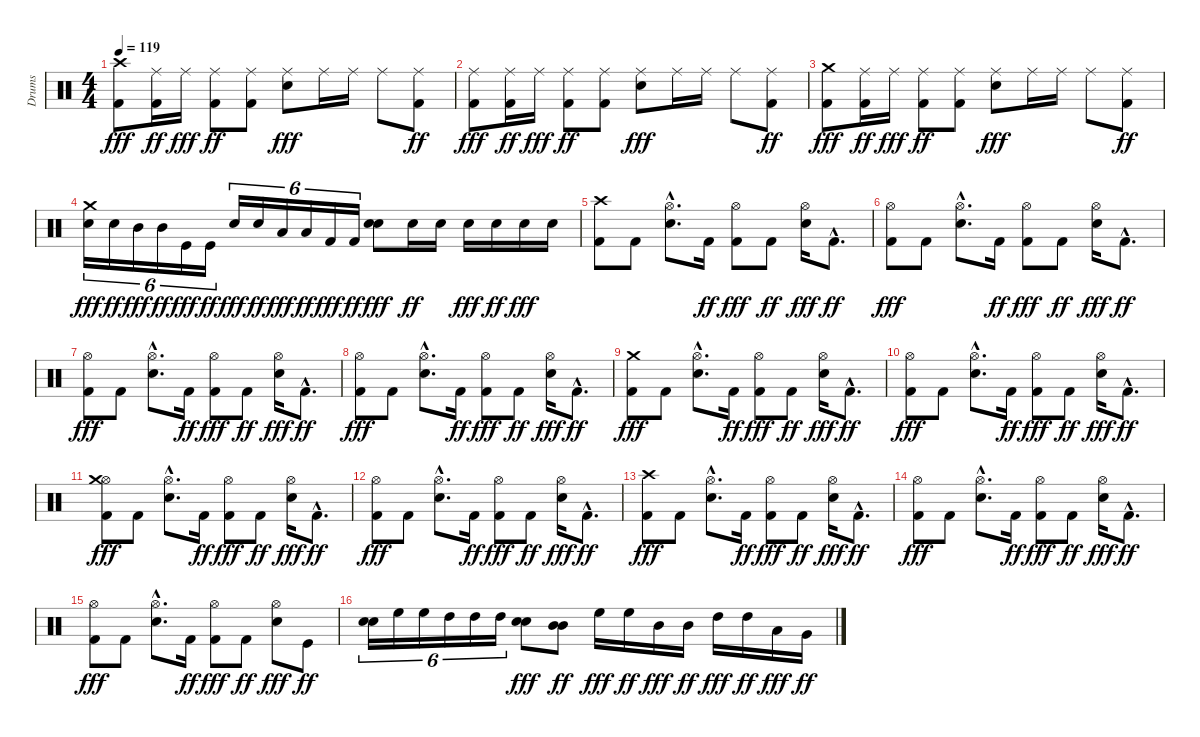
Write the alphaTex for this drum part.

\track ("Drums" "Drums") {instrument percussion}
\staff {score}
\articulation defaults
\ts (4 4)
\tempo 119
\clef neutral
\ks c
("Kick (hit) 2" "Crash high (hit)").8{dy fff} ("Ride (middle)" "Kick (hit) 2").16{dy ff} "Ride (middle)".16{dy fff} ("Ride (middle)" "Kick (hit) 2").8{dy ff} ("Ride (middle)" "Kick (hit) 2").8 ("Ride (middle)" "Snare (hit) 2").8{dy fff} "Ride (middle)".16 "Ride (middle)".16 "Ride (middle)".8 ("Ride (middle)" "Kick (hit) 2").8{dy ff} |
("Ride (middle)" "Kick (hit) 2").8{dy fff} ("Ride (middle)" "Kick (hit) 2").16{dy ff} "Ride (middle)".16{dy fff} ("Ride (middle)" "Kick (hit) 2").8{dy ff} ("Ride (middle)" "Kick (hit) 2").8 ("Ride (middle)" "Snare (hit) 2").8{dy fff} "Ride (middle)".16 "Ride (middle)".16 "Ride (middle)".8 ("Ride (middle)" "Kick (hit) 2").8{dy ff} |
("Kick (hit) 2" "Crash medium (hit)").8{dy fff} ("Ride (middle)" "Kick (hit) 2").16{dy ff} "Ride (middle)".16{dy fff} ("Ride (middle)" "Kick (hit) 2").8{dy ff} ("Ride (middle)" "Kick (hit) 2").8 ("Ride (middle)" "Snare (hit) 2").8{dy fff} "Ride (middle)".16 "Ride (middle)".16 "Ride (middle)".8 ("Ride (middle)" "Kick (hit) 2").8{dy ff} |
("Electric Snare (hit)" "Crash medium (hit)").16{tu (6 4) dy fff} "Electric Snare (hit)".16{tu (6 4) dy ff} "Mid Tom (hit)".16{tu (6 4) dy fff} "Mid Tom (hit)".16{tu (6 4) dy ff} "Kick (hit)".16{tu (6 4) dy fff} "Kick (hit)".16{tu (6 4) dy ff} "Snare (hit) 2".16{tu (6 4) dy fff} "Electric Snare (hit)".16{tu (6 4) dy ff} "Low Tom (hit)".16{tu (6 4) dy fff} "Low Tom (hit)".16{tu (6 4) dy ff} "Kick (hit) 2".16{tu (6 4) dy fff} "Kick (hit) 2".16{tu (6 4) dy ff} ("Snare (hit) 2" "Snare (hit) 2").8{dy fff} "Snare (hit) 2".16{dy ff} "Snare (hit) 2".16 "Snare (hit) 2".16{dy fff} "Snare (hit) 2".16{dy ff} "Snare (hit) 2".16{dy fff} "Snare (hit) 2".16 |
("Kick (hit) 2" "Crash high (hit)").8 "Kick (hit) 2".8 ("Hi-Hat (open)" "Snare (hit) 2"{hac}).8{d} "Kick (hit) 2".16{dy ff} ("Hi-Hat (open)" "Kick (hit) 2").8{dy fff} "Kick (hit) 2".8{dy ff} ("Hi-Hat (open)" "Snare (hit) 2").16{dy fff} "Kick (hit) 2"{hac}.8{d dy ff} |
("Hi-Hat (open)" "Kick (hit) 2").8{dy fff} "Kick (hit) 2".8 ("Hi-Hat (open)" "Snare (hit) 2"{hac}).8{d} "Kick (hit) 2".16{dy ff} ("Hi-Hat (open)" "Kick (hit) 2").8{dy fff} "Kick (hit) 2".8{dy ff} ("Hi-Hat (open)" "Snare (hit) 2").16{dy fff} "Kick (hit) 2"{hac}.8{d dy ff} |
("Hi-Hat (open)" "Kick (hit) 2").8{dy fff} "Kick (hit) 2".8 ("Hi-Hat (open)" "Snare (hit) 2"{hac}).8{d} "Kick (hit) 2".16{dy ff} ("Hi-Hat (open)" "Kick (hit) 2").8{dy fff} "Kick (hit) 2".8{dy ff} ("Hi-Hat (open)" "Snare (hit) 2").16{dy fff} "Kick (hit) 2"{hac}.8{d dy ff} |
("Hi-Hat (open)" "Kick (hit) 2").8{dy fff} "Kick (hit) 2".8 ("Hi-Hat (open)" "Snare (hit) 2"{hac}).8{d} "Kick (hit) 2".16{dy ff} ("Hi-Hat (open)" "Kick (hit) 2").8{dy fff} "Kick (hit) 2".8{dy ff} ("Hi-Hat (open)" "Snare (hit) 2").16{dy fff} "Kick (hit) 2"{hac}.8{d dy ff} |
("Kick (hit) 2" "Crash medium (hit)").8{dy fff} "Kick (hit) 2".8 ("Hi-Hat (open)" "Snare (hit) 2"{hac}).8{d} "Kick (hit) 2".16{dy ff} ("Hi-Hat (open)" "Kick (hit) 2").8{dy fff} "Kick (hit) 2".8{dy ff} ("Hi-Hat (open)" "Snare (hit) 2").16{dy fff} "Kick (hit) 2"{hac}.8{d dy ff} |
("Hi-Hat (open)" "Kick (hit) 2").8{dy fff} "Kick (hit) 2".8 ("Hi-Hat (open)" "Snare (hit) 2"{hac}).8{d} "Kick (hit) 2".16{dy ff} ("Hi-Hat (open)" "Kick (hit) 2").8{dy fff} "Kick (hit) 2".8{dy ff} ("Hi-Hat (open)" "Snare (hit) 2").16{dy fff} "Kick (hit) 2"{hac}.8{d dy ff} |
("Hi-Hat (open)" "Kick (hit) 2" "Crash medium (hit)").8{dy fff} "Kick (hit) 2".8 ("Hi-Hat (open)" "Snare (hit) 2"{hac}).8{d} "Kick (hit) 2".16{dy ff} ("Hi-Hat (open)" "Kick (hit) 2").8{dy fff} "Kick (hit) 2".8{dy ff} ("Hi-Hat (open)" "Snare (hit) 2").16{dy fff} "Kick (hit) 2"{hac}.8{d dy ff} |
("Hi-Hat (open)" "Kick (hit) 2").8{dy fff} "Kick (hit) 2".8 ("Hi-Hat (open)" "Snare (hit) 2"{hac}).8{d} "Kick (hit) 2".16{dy ff} ("Hi-Hat (open)" "Kick (hit) 2").8{dy fff} "Kick (hit) 2".8{dy ff} ("Hi-Hat (open)" "Snare (hit) 2").16{dy fff} "Kick (hit) 2"{hac}.8{d dy ff} |
("Kick (hit) 2" "Crash high (hit)").8{dy fff} "Kick (hit) 2".8 ("Hi-Hat (open)" "Snare (hit) 2"{hac}).8{d} "Kick (hit) 2".16{dy ff} ("Hi-Hat (open)" "Kick (hit) 2").8{dy fff} "Kick (hit) 2".8{dy ff} ("Hi-Hat (open)" "Snare (hit) 2").16{dy fff} "Kick (hit) 2"{hac}.8{d dy ff} |
("Hi-Hat (open)" "Kick (hit) 2").8{dy fff} "Kick (hit) 2".8 ("Hi-Hat (open)" "Snare (hit) 2"{hac}).8{d} "Kick (hit) 2".16{dy ff} ("Hi-Hat (open)" "Kick (hit) 2").8{dy fff} "Kick (hit) 2".8{dy ff} ("Hi-Hat (open)" "Snare (hit) 2").16{dy fff} "Kick (hit) 2"{hac}.8{d dy ff} |
("Hi-Hat (open)" "Kick (hit) 2").8{dy fff} "Kick (hit) 2".8 ("Hi-Hat (open)" "Snare (hit) 2"{hac}).8{d} "Kick (hit) 2".16{dy ff} ("Hi-Hat (open)" "Kick (hit) 2").8{dy fff} "Kick (hit) 2".8{dy ff} ("Hi-Hat (open)" "Snare (hit) 2").8{dy fff} "Kick (hit)".8{dy ff} |
("Snare (hit) 2" "Snare (hit) 2").16{tu (6 4)} "High Floor Tom (hit)".16{tu (6 4)} "High Floor Tom (hit)".16{tu (6 4)} "High Tom (hit)".16{tu (6 4)} "High Tom (hit)".16{tu (6 4)} "High Tom (hit)".16{tu (6 4)} ("Snare (hit) 2" "Snare (hit) 2").8{dy fff} ("Mid Tom (hit)" "Mid Tom (hit)").8{dy ff} "High Floor Tom (hit)".16{dy fff} "High Floor Tom (hit)".16{dy ff} "Mid Tom (hit)".16{dy fff} "Mid Tom (hit)".16{dy ff} "High Tom (hit)".16{dy fff} "High Tom (hit)".16{dy ff} "Low Tom (hit)".16{dy fff} "Very Low Tom (hit)".16{dy ff}
